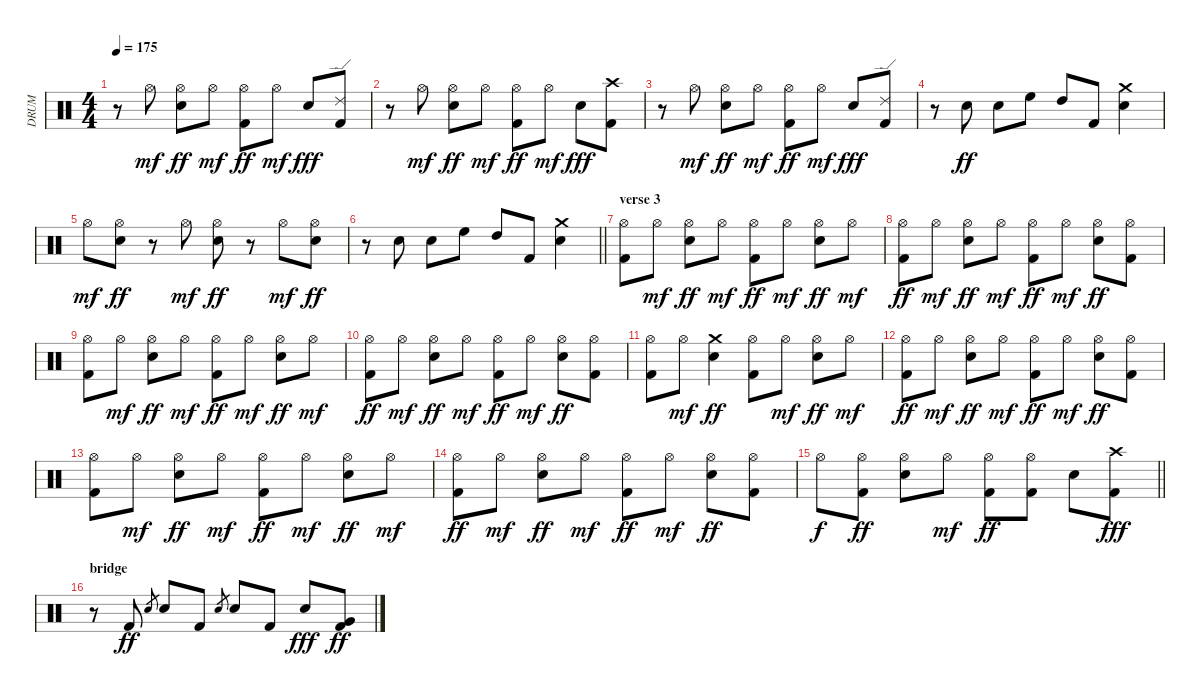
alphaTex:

\track ("DRUM" "DRUM") {instrument percussion}
\staff {score}
\articulation defaults
\ts (4 4)
\tempo 175
\clef neutral
\ks c
r.8{dy ff} "Hi-Hat (open)".8{dy mf} ("Hi-Hat (open)" "Snare (hit) 2").8{dy ff} "Hi-Hat (open)".8{dy mf} ("Hi-Hat (open)" "Kick (hit) 2").8{dy ff} "Hi-Hat (open)".8{dy mf} "Snare (hit) 2".8{dy fff} ("Ride (edge) 2" "Kick (hit) 2").8 |
r.8 "Hi-Hat (open)".8{dy mf} ("Hi-Hat (open)" "Snare (hit) 2").8{dy ff} "Hi-Hat (open)".8{dy mf} ("Hi-Hat (open)" "Kick (hit) 2").8{dy ff} "Hi-Hat (open)".8{dy mf} "Snare (hit) 2".8{dy fff} ("Crash high (hit)" "Kick (hit) 2").8 |
r.8 "Hi-Hat (open)".8{dy mf} ("Hi-Hat (open)" "Snare (hit) 2").8{dy ff} "Hi-Hat (open)".8{dy mf} ("Hi-Hat (open)" "Kick (hit) 2").8{dy ff} "Hi-Hat (open)".8{dy mf} "Snare (hit) 2".8{dy fff} ("Ride (edge) 2" "Kick (hit) 2").8 |
r.8 "Electric Snare (hit)".8{dy ff} "Snare (hit) 2".8 "High Floor Tom (hit)".8 "High Tom (hit)".8 "Kick (hit) 2".8 ("Crash medium (hit)" "Snare (hit) 2").4 |
"Hi-Hat (open)".8{dy mf} ("Hi-Hat (open)" "Snare (hit) 2").8{dy ff} r.8 "Hi-Hat (open)".8{dy mf} ("Hi-Hat (open)" "Snare (hit) 2").8{dy ff} r.8 "Hi-Hat (open)".8{dy mf} ("Hi-Hat (open)" "Snare (hit) 2").8{dy ff} |
\barLineRight lightlight
r.8 "Electric Snare (hit)".8 "Snare (hit) 2".8 "High Floor Tom (hit)".8 "High Tom (hit)".8 "Kick (hit) 2".8 ("Crash medium (hit)" "Snare (hit) 2").4 |
\section ("" "verse 3")
("Hi-Hat (open)" "Kick (hit) 2").8 "Hi-Hat (open)".8{dy mf} ("Hi-Hat (open)" "Snare (hit) 2").8{dy ff} "Hi-Hat (open)".8{dy mf} ("Hi-Hat (open)" "Kick (hit) 2").8{dy ff} "Hi-Hat (open)".8{dy mf} ("Hi-Hat (open)" "Snare (hit) 2").8{dy ff} "Hi-Hat (open)".8{dy mf} |
("Hi-Hat (open)" "Kick (hit) 2").8{dy ff} "Hi-Hat (open)".8{dy mf} ("Hi-Hat (open)" "Snare (hit) 2").8{dy ff} "Hi-Hat (open)".8{dy mf} ("Hi-Hat (open)" "Kick (hit) 2").8{dy ff} "Hi-Hat (open)".8{dy mf} ("Hi-Hat (open)" "Snare (hit) 2").8{dy ff} ("Hi-Hat (open)" "Kick (hit) 2").8 |
("Hi-Hat (open)" "Kick (hit) 2").8 "Hi-Hat (open)".8{dy mf} ("Hi-Hat (open)" "Snare (hit) 2").8{dy ff} "Hi-Hat (open)".8{dy mf} ("Hi-Hat (open)" "Kick (hit) 2").8{dy ff} "Hi-Hat (open)".8{dy mf} ("Hi-Hat (open)" "Snare (hit) 2").8{dy ff} "Hi-Hat (open)".8{dy mf} |
("Hi-Hat (open)" "Kick (hit) 2").8{dy ff} "Hi-Hat (open)".8{dy mf} ("Hi-Hat (open)" "Snare (hit) 2").8{dy ff} "Hi-Hat (open)".8{dy mf} ("Hi-Hat (open)" "Kick (hit) 2").8{dy ff} "Hi-Hat (open)".8{dy mf} ("Hi-Hat (open)" "Snare (hit) 2").8{dy ff} ("Hi-Hat (open)" "Kick (hit) 2").8 |
("Hi-Hat (open)" "Kick (hit) 2").8 "Hi-Hat (open)".8{dy mf} ("Crash medium (hit)" "Snare (hit) 2").4{dy ff} ("Hi-Hat (open)" "Kick (hit) 2").8 "Hi-Hat (open)".8{dy mf} ("Hi-Hat (open)" "Snare (hit) 2").8{dy ff} "Hi-Hat (open)".8{dy mf} |
("Hi-Hat (open)" "Kick (hit) 2").8{dy ff} "Hi-Hat (open)".8{dy mf} ("Hi-Hat (open)" "Snare (hit) 2").8{dy ff} "Hi-Hat (open)".8{dy mf} ("Hi-Hat (open)" "Kick (hit) 2").8{dy ff} "Hi-Hat (open)".8{dy mf} ("Hi-Hat (open)" "Snare (hit) 2").8{dy ff} ("Hi-Hat (open)" "Kick (hit) 2").8 |
("Hi-Hat (open)" "Kick (hit) 2").8 "Hi-Hat (open)".8{dy mf} ("Hi-Hat (open)" "Snare (hit) 2").8{dy ff} "Hi-Hat (open)".8{dy mf} ("Hi-Hat (open)" "Kick (hit) 2").8{dy ff} "Hi-Hat (open)".8{dy mf} ("Hi-Hat (open)" "Snare (hit) 2").8{dy ff} "Hi-Hat (open)".8{dy mf} |
("Hi-Hat (open)" "Kick (hit) 2").8{dy ff} "Hi-Hat (open)".8{dy mf} ("Hi-Hat (open)" "Snare (hit) 2").8{dy ff} "Hi-Hat (open)".8{dy mf} ("Hi-Hat (open)" "Kick (hit) 2").8{dy ff} "Hi-Hat (open)".8{dy mf} ("Hi-Hat (open)" "Snare (hit) 2").8{dy ff} ("Hi-Hat (open)" "Kick (hit) 2").8 |
\barLineRight lightlight "Hi-Hat (open)".8{dy f}
("Hi-Hat (open)" "Kick (hit) 2").8{dy ff} ("Hi-Hat (open)" "Snare (hit) 2").8 "Hi-Hat (open)".8{dy mf} ("Hi-Hat (open)" "Kick (hit) 2").8{dy ff} ("Hi-Hat (open)" "Kick (hit) 2").8 "Snare (hit) 2".8 ("Crash high (hit)" "Kick (hit) 2").8{dy fff} |
\section ("" "bridge")
r.8 "Kick (hit) 2".8{dy ff} "Electric Snare (hit)".8{gr} "Snare (hit) 2".8 "Kick (hit) 2".8 "Electric Snare (hit)".8{gr} "Snare (hit) 2".8 "Kick (hit) 2".8 "Snare (hit) 2".8{dy fff} ("Very Low Tom (hit)" "Kick (hit) 2").8{dy ff}
